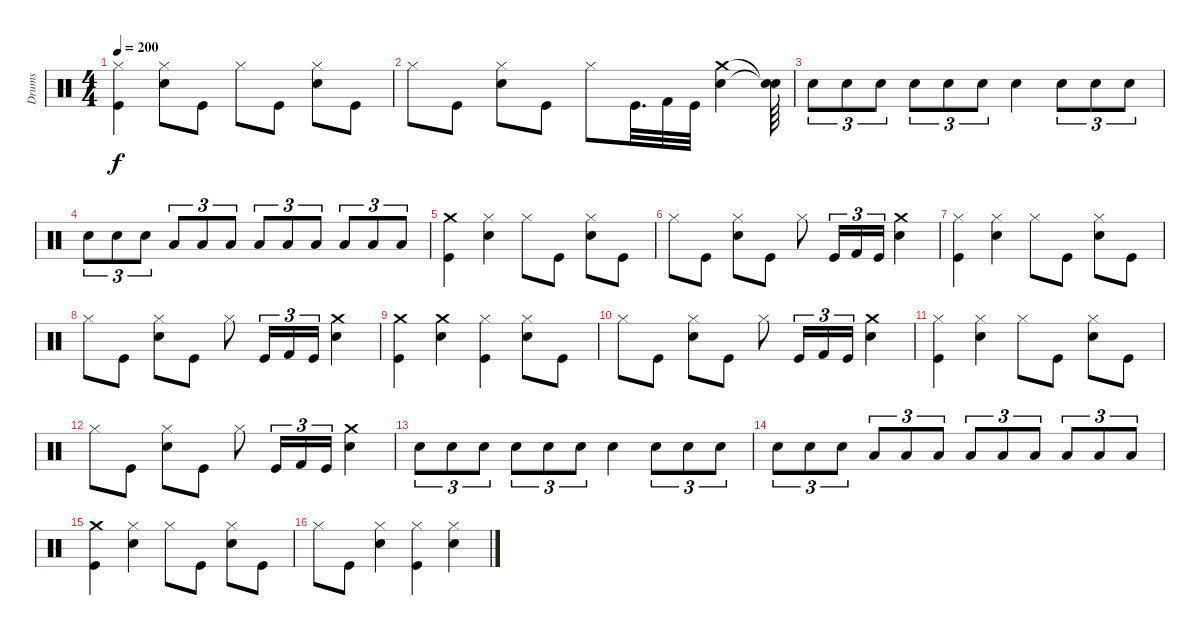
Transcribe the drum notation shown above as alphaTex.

\track ("Drums" "Drums") {instrument percussion}
\staff {score}
\articulation defaults
\ts (4 4)
\tempo 200
\clef neutral
\ks c
("Hi-Hat (closed)" "Kick (hit)").4{dy f} ("Snare (hit) 2" "Hi-Hat (closed)").8 "Kick (hit)".8 "Hi-Hat (closed)".8 "Kick (hit)".8 ("Snare (hit) 2" "Hi-Hat (closed)").8 "Kick (hit)".8 |
"Hi-Hat (closed)".8 "Kick (hit)".8 ("Snare (hit) 2" "Hi-Hat (closed)").8 "Kick (hit)".8 "Hi-Hat (closed)".8 "Kick (hit)".32{d} "Kick (hit) 2".32 "Kick (hit)".32 ("Crash medium (hit)" "Snare (hit) 2").4 ("Snare (hit)"{t} "Snare (hit)"{t}).64 |
"Snare (hit) 2".8{tu (3 2)} "Snare (hit) 2".8{tu (3 2)} "Snare (hit) 2".8{tu (3 2)} "Snare (hit) 2".8{tu (3 2)} "Snare (hit) 2".8{tu (3 2)} "Snare (hit) 2".8{tu (3 2)} "Snare (hit) 2".4 "Snare (hit) 2".8{tu (3 2)} "Snare (hit) 2".8{tu (3 2)} "Snare (hit) 2".8{tu (3 2)} |
"Snare (hit) 2".8{tu (3 2)} "Snare (hit) 2".8{tu (3 2)} "Snare (hit) 2".8{tu (3 2)} "Low Tom (hit)".8{tu (3 2)} "Low Tom (hit)".8{tu (3 2)} "Low Tom (hit)".8{tu (3 2)} "Low Tom (hit)".8{tu (3 2)} "Low Tom (hit)".8{tu (3 2)} "Low Tom (hit)".8{tu (3 2)} "Low Tom (hit)".8{tu (3 2)} "Low Tom (hit)".8{tu (3 2)} "Low Tom (hit)".8{tu (3 2)} |
("Crash medium (hit)" "Kick (hit)").4 ("Hi-Hat (closed)" "Snare (hit) 2").4 "Hi-Hat (closed)".8 "Kick (hit)".8 ("Snare (hit) 2" "Hi-Hat (closed)").8 "Kick (hit)".8 |
"Hi-Hat (closed)".8 "Kick (hit)".8 ("Snare (hit) 2" "Hi-Hat (closed)").8 "Kick (hit)".8 "Hi-Hat (closed)".8 "Kick (hit)".16{tu (3 2)} "Kick (hit) 2".16{tu (3 2)} "Kick (hit)".16{tu (3 2)} ("Crash medium (hit)" "Snare (hit) 2").4 |
("Hi-Hat (closed)" "Kick (hit)").4 ("Snare (hit) 2" "Hi-Hat (closed)").4 "Hi-Hat (closed)".8 "Kick (hit)".8 ("Snare (hit) 2" "Hi-Hat (closed)").8 "Kick (hit)".8 |
"Hi-Hat (closed)".8 "Kick (hit)".8 ("Snare (hit) 2" "Hi-Hat (closed)").8 "Kick (hit)".8 "Hi-Hat (closed)".8 "Kick (hit)".16{tu (3 2)} "Kick (hit) 2".16{tu (3 2)} "Kick (hit)".16{tu (3 2)} ("Crash medium (hit)" "Snare (hit) 2").4 |
("Kick (hit)" "Crash medium (hit)").4 ("Snare (hit) 2" "Crash medium (hit)").4 ("Hi-Hat (closed)" "Kick (hit)").4 ("Snare (hit) 2" "Hi-Hat (closed)").8 "Kick (hit)".8 |
"Hi-Hat (closed)".8 "Kick (hit)".8 ("Snare (hit) 2" "Hi-Hat (closed)").8 "Kick (hit)".8 "Hi-Hat (closed)".8 "Kick (hit)".16{tu (3 2)} "Kick (hit) 2".16{tu (3 2)} "Kick (hit)".16{tu (3 2)} ("Crash medium (hit)" "Snare (hit) 2").4 |
("Hi-Hat (closed)" "Kick (hit)").4 ("Snare (hit) 2" "Hi-Hat (closed)").4 "Hi-Hat (closed)".8 "Kick (hit)".8 ("Snare (hit) 2" "Hi-Hat (closed)").8 "Kick (hit)".8 |
"Hi-Hat (closed)".8 "Kick (hit)".8 ("Snare (hit) 2" "Hi-Hat (closed)").8 "Kick (hit)".8 "Hi-Hat (closed)".8 "Kick (hit)".16{tu (3 2)} "Kick (hit) 2".16{tu (3 2)} "Kick (hit)".16{tu (3 2)} ("Crash medium (hit)" "Snare (hit) 2").4 |
"Snare (hit) 2".8{tu (3 2)} "Snare (hit) 2".8{tu (3 2)} "Snare (hit) 2".8{tu (3 2)} "Snare (hit) 2".8{tu (3 2)} "Snare (hit) 2".8{tu (3 2)} "Snare (hit) 2".8{tu (3 2)} "Snare (hit) 2".4 "Snare (hit) 2".8{tu (3 2)} "Snare (hit) 2".8{tu (3 2)} "Snare (hit) 2".8{tu (3 2)} |
"Snare (hit) 2".8{tu (3 2)} "Snare (hit) 2".8{tu (3 2)} "Snare (hit) 2".8{tu (3 2)} "Low Tom (hit)".8{tu (3 2)} "Low Tom (hit)".8{tu (3 2)} "Low Tom (hit)".8{tu (3 2)} "Low Tom (hit)".8{tu (3 2)} "Low Tom (hit)".8{tu (3 2)} "Low Tom (hit)".8{tu (3 2)} "Low Tom (hit)".8{tu (3 2)} "Low Tom (hit)".8{tu (3 2)} "Low Tom (hit)".8{tu (3 2)} |
("Crash medium (hit)" "Kick (hit)").4 ("Hi-Hat (closed)" "Snare (hit) 2").4 "Hi-Hat (closed)".8 "Kick (hit)".8 ("Snare (hit) 2" "Hi-Hat (closed)").8 "Kick (hit)".8 |
"Hi-Hat (closed)".8 "Kick (hit)".8 ("Snare (hit) 2" "Hi-Hat (closed)").4 ("Hi-Hat (closed)" "Kick (hit)").4 ("Snare (hit) 2" "Hi-Hat (closed)").4
